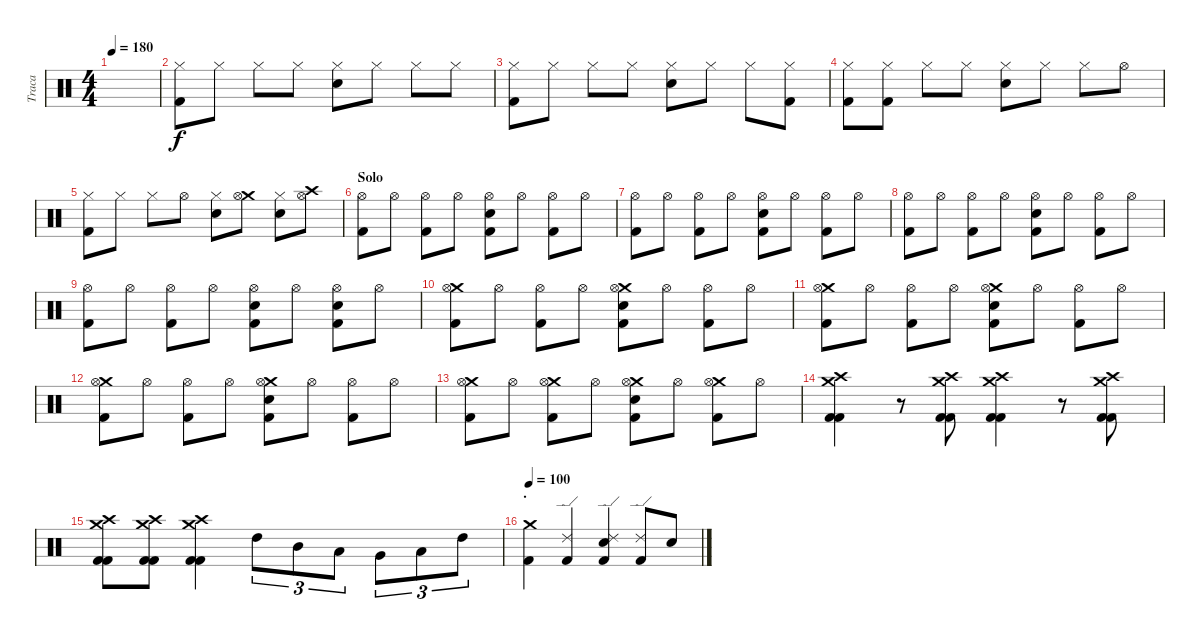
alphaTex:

\track ("Traca" "Traca") {instrument percussion}
\staff {score}
\articulation defaults
\ts (4 4)
\tempo 180
\clef neutral
\ks c
|
("Hi-Hat (closed)" "Kick (hit) 2").8 "Hi-Hat (closed)".8 "Hi-Hat (closed)".8 "Hi-Hat (closed)".8 ("Hi-Hat (closed)" "Snare (hit) 2").8 "Hi-Hat (closed)".8 "Hi-Hat (closed)".8 "Hi-Hat (closed)".8 |
("Hi-Hat (closed)" "Kick (hit) 2").8 "Hi-Hat (closed)".8 "Hi-Hat (closed)".8 "Hi-Hat (closed)".8 ("Hi-Hat (closed)" "Snare (hit) 2").8 "Hi-Hat (closed)".8 "Hi-Hat (closed)".8 ("Hi-Hat (closed)" "Kick (hit) 2").8 |
("Hi-Hat (closed)" "Kick (hit) 2").8 ("Hi-Hat (closed)" "Kick (hit) 2").8 "Hi-Hat (closed)".8 "Hi-Hat (closed)".8 ("Hi-Hat (closed)" "Snare (hit) 2").8 "Hi-Hat (closed)".8 "Hi-Hat (closed)".8 "Hi-Hat (open)".8 |
("Hi-Hat (closed)" "Kick (hit) 2").8 "Hi-Hat (closed)".8 "Hi-Hat (closed)".8 "Hi-Hat (open)".8 ("Hi-Hat (closed)" "Snare (hit) 2").8 ("Crash medium (hit)" "Hi-Hat (open)").8 ("Hi-Hat (closed)" "Snare (hit) 2").8 ("Crash high (hit)" "Hi-Hat (open)").8 |
\section ("" "Solo")
("Hi-Hat (open)" "Kick (hit) 2").8 "Hi-Hat (open)".8 ("Hi-Hat (open)" "Kick (hit) 2").8 "Hi-Hat (open)".8 ("Hi-Hat (open)" "Snare (hit) 2" "Kick (hit) 2").8 "Hi-Hat (open)".8 ("Hi-Hat (open)" "Kick (hit) 2").8 "Hi-Hat (open)".8 |
("Hi-Hat (open)" "Kick (hit) 2").8 "Hi-Hat (open)".8 ("Hi-Hat (open)" "Kick (hit) 2").8 "Hi-Hat (open)".8 ("Hi-Hat (open)" "Snare (hit) 2" "Kick (hit) 2").8 "Hi-Hat (open)".8 ("Hi-Hat (open)" "Kick (hit) 2").8 "Hi-Hat (open)".8 |
("Hi-Hat (open)" "Kick (hit) 2").8 "Hi-Hat (open)".8 ("Hi-Hat (open)" "Kick (hit) 2").8 "Hi-Hat (open)".8 ("Hi-Hat (open)" "Snare (hit) 2" "Kick (hit) 2").8 "Hi-Hat (open)".8 ("Hi-Hat (open)" "Kick (hit) 2").8 "Hi-Hat (open)".8 |
("Hi-Hat (open)" "Kick (hit) 2").8 "Hi-Hat (open)".8 ("Hi-Hat (open)" "Kick (hit) 2").8 "Hi-Hat (open)".8 ("Hi-Hat (open)" "Snare (hit) 2" "Kick (hit) 2").8 "Hi-Hat (open)".8 ("Hi-Hat (open)" "Snare (hit) 2" "Kick (hit) 2").8 "Hi-Hat (open)".8 |
("Crash medium (hit)" "Hi-Hat (open)" "Kick (hit) 2").8 "Hi-Hat (open)".8 ("Hi-Hat (open)" "Kick (hit) 2").8 "Hi-Hat (open)".8 ("Crash medium (hit)" "Hi-Hat (open)" "Snare (hit) 2" "Kick (hit) 2").8 "Hi-Hat (open)".8 ("Hi-Hat (open)" "Kick (hit) 2").8 "Hi-Hat (open)".8 |
("Crash medium (hit)" "Hi-Hat (open)" "Kick (hit) 2").8 "Hi-Hat (open)".8 ("Hi-Hat (open)" "Kick (hit) 2").8 "Hi-Hat (open)".8 ("Crash medium (hit)" "Hi-Hat (open)" "Snare (hit) 2" "Kick (hit) 2").8 "Hi-Hat (open)".8 ("Hi-Hat (open)" "Kick (hit) 2").8 "Hi-Hat (open)".8 |
("Crash medium (hit)" "Hi-Hat (open)" "Kick (hit) 2").8 "Hi-Hat (open)".8 ("Hi-Hat (open)" "Kick (hit) 2").8 "Hi-Hat (open)".8 ("Crash medium (hit)" "Hi-Hat (open)" "Snare (hit) 2" "Kick (hit) 2").8 "Hi-Hat (open)".8 ("Hi-Hat (open)" "Kick (hit) 2").8 "Hi-Hat (open)".8 |
("Crash medium (hit)" "Hi-Hat (open)" "Kick (hit) 2").8 "Hi-Hat (open)".8 ("Crash medium (hit)" "Hi-Hat (open)" "Kick (hit) 2").8 "Hi-Hat (open)".8 ("Crash medium (hit)" "Hi-Hat (open)" "Snare (hit) 2" "Kick (hit) 2").8 "Hi-Hat (open)".8 ("Crash medium (hit)" "Hi-Hat (open)" "Kick (hit) 2").8 "Hi-Hat (open)".8 |
("Crash medium (hit)" "Crash high (hit)" "Kick (hit) 2" "Kick (hit) 2").4 r.8 ("Crash medium (hit)" "Crash high (hit)" "Kick (hit) 2" "Kick (hit) 2").8 ("Crash medium (hit)" "Crash high (hit)" "Kick (hit) 2" "Kick (hit) 2").4 r.8 ("Crash medium (hit)" "Crash high (hit)" "Kick (hit) 2" "Kick (hit) 2").8 |
("Crash medium (hit)" "Crash high (hit)" "Kick (hit) 2" "Kick (hit) 2").8 ("Crash medium (hit)" "Crash high (hit)" "Kick (hit) 2" "Kick (hit) 2").8 ("Crash medium (hit)" "Crash high (hit)" "Kick (hit) 2" "Kick (hit) 2").4 "High Tom (hit)".8{tu (3 2)} "Mid Tom (hit)".8{tu (3 2)} "Low Tom (hit)".8{tu (3 2)} "Very Low Tom (hit)".8{tu (3 2)} "Low Tom (hit)".8{tu (3 2)} "High Tom (hit)".8{tu (3 2)} |
\section ("" ".")
\tempo 100
("Crash medium (hit)" "Kick (hit) 2").4 ("Ride (edge) 2" "Kick (hit) 2").4 ("Ride (edge) 2" "Snare (hit) 2" "Kick (hit) 2").4 ("Ride (edge) 2" "Kick (hit) 2").8 "Snare (hit) 2".8
